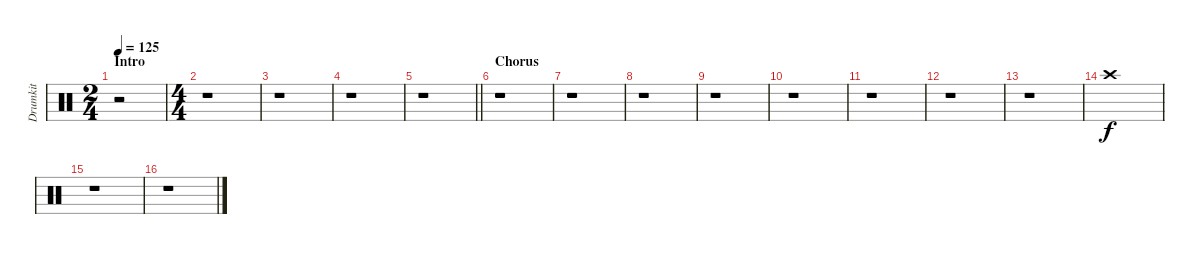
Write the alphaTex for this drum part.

\track ("Drumkit" "Drumkit") {instrument percussion}
\staff {score}
\articulation defaults
\ts (2 4)
\section ("" "Intro")
\tempo 125
\clef neutral
\ks c
r.2{dy f} |
\ts (4 4)
r.1 |
r.1 |
r.1 |
\barLineRight lightlight
r.1 |
\section ("" "Chorus")
r.1 |
r.1 |
r.1 |
r.1 |
r.1 |
r.1 |
r.1 |
r.1 |
"Crash high (hit)".1 |
r.1 |
r.1
